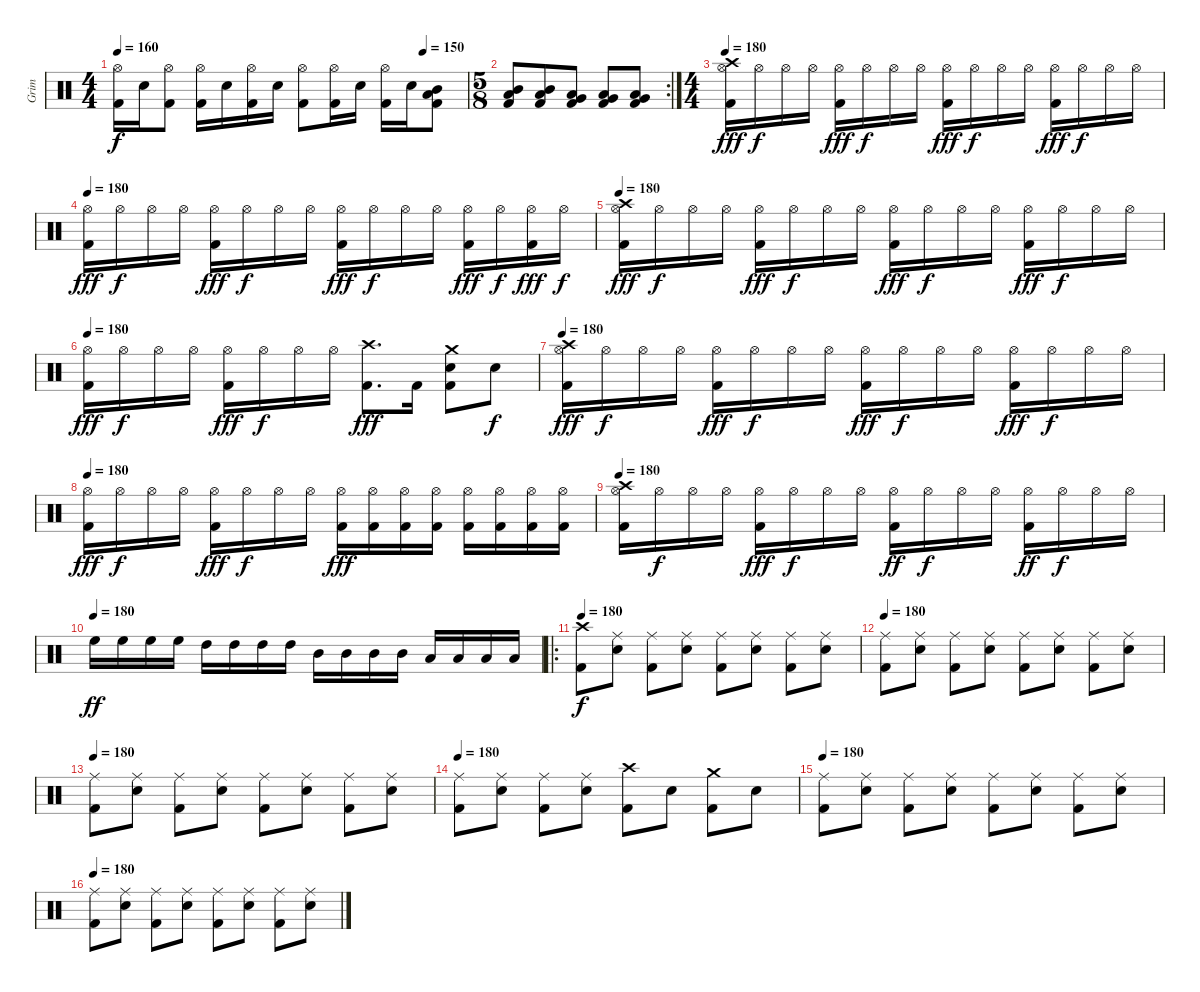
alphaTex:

\track ("Grim" "Grim") {instrument percussion}
\staff {score}
\articulation defaults
\ts (4 4)
\tempo 160
\tempo (150 0.875)
\clef neutral
\ks c
("Hi-Hat (open)" "Kick (hit) 2").16{dy f} "Electric Snare (hit)".16 ("Hi-Hat (open)" "Kick (hit) 2").8 ("Hi-Hat (open)" "Kick (hit) 2").16 "Electric Snare (hit)".16 ("Hi-Hat (open)" "Kick (hit) 2").16 "Electric Snare (hit)".16 ("Hi-Hat (open)" "Kick (hit) 2").8 ("Hi-Hat (open)" "Kick (hit) 2").16 "Electric Snare (hit)".16 ("Hi-Hat (open)" "Kick (hit) 2").16 "Electric Snare (hit)".16 ("Mid Tom (hit)" "Low Tom (hit)" "Kick (hit) 2").8 |
\rc 2
\ts (5 8)
("Mid Tom (hit)" "Low Tom (hit)" "Kick (hit) 2").8 ("Mid Tom (hit)" "Low Tom (hit)" "Kick (hit) 2").8 ("Low Tom (hit)" "Very Low Tom (hit)" "Kick (hit) 2").8 ("Low Tom (hit)" "Very Low Tom (hit)" "Kick (hit) 2").8 ("Low Tom (hit)" "Very Low Tom (hit)" "Kick (hit) 2").8 |
\ts (4 4)
\tempo 180
("Hi-Hat (open)" "Crash high (hit)" "Kick (hit) 2").16{dy fff} "Hi-Hat (open)".16{dy f} "Hi-Hat (open)".16 "Hi-Hat (open)".16 ("Hi-Hat (open)" "Kick (hit) 2").16{dy fff} "Hi-Hat (open)".16{dy f} "Hi-Hat (open)".16 "Hi-Hat (open)".16 ("Hi-Hat (open)" "Kick (hit) 2").16{dy fff} "Hi-Hat (open)".16{dy f} "Hi-Hat (open)".16 "Hi-Hat (open)".16 ("Hi-Hat (open)" "Kick (hit) 2").16{dy fff} "Hi-Hat (open)".16{dy f} "Hi-Hat (open)".16 "Hi-Hat (open)".16 |
\tempo 180
("Hi-Hat (open)" "Kick (hit) 2").16{dy fff} "Hi-Hat (open)".16{dy f} "Hi-Hat (open)".16 "Hi-Hat (open)".16 ("Hi-Hat (open)" "Kick (hit) 2").16{dy fff} "Hi-Hat (open)".16{dy f} "Hi-Hat (open)".16 "Hi-Hat (open)".16 ("Hi-Hat (open)" "Kick (hit) 2").16{dy fff} "Hi-Hat (open)".16{dy f} "Hi-Hat (open)".16 "Hi-Hat (open)".16 ("Hi-Hat (open)" "Kick (hit) 2").16{dy fff} "Hi-Hat (open)".16{dy f} ("Hi-Hat (open)" "Kick (hit) 2").16{dy fff} "Hi-Hat (open)".16{dy f} |
\tempo 180
("Hi-Hat (open)" "Crash high (hit)" "Kick (hit) 2").16{dy fff} "Hi-Hat (open)".16{dy f} "Hi-Hat (open)".16 "Hi-Hat (open)".16 ("Hi-Hat (open)" "Kick (hit) 2").16{dy fff} "Hi-Hat (open)".16{dy f} "Hi-Hat (open)".16 "Hi-Hat (open)".16 ("Hi-Hat (open)" "Kick (hit) 2").16{dy fff} "Hi-Hat (open)".16{dy f} "Hi-Hat (open)".16 "Hi-Hat (open)".16 ("Hi-Hat (open)" "Kick (hit) 2").16{dy fff} "Hi-Hat (open)".16{dy f} "Hi-Hat (open)".16 "Hi-Hat (open)".16 |
\tempo 180
("Hi-Hat (open)" "Kick (hit) 2").16{dy fff} "Hi-Hat (open)".16{dy f} "Hi-Hat (open)".16 "Hi-Hat (open)".16 ("Hi-Hat (open)" "Kick (hit) 2").16{dy fff} "Hi-Hat (open)".16{dy f} "Hi-Hat (open)".16 "Hi-Hat (open)".16 ("Crash high (hit)" "Kick (hit) 2").8{d dy fff} "Kick (hit) 2".16 ("Crash medium (hit)" "Electric Snare (hit)" "Kick (hit) 2").8 "Electric Snare (hit)".8{dy f} |
\tempo 180
("Hi-Hat (open)" "Crash high (hit)" "Kick (hit) 2").16{dy fff} "Hi-Hat (open)".16{dy f} "Hi-Hat (open)".16 "Hi-Hat (open)".16 ("Hi-Hat (open)" "Kick (hit) 2").16{dy fff} "Hi-Hat (open)".16{dy f} "Hi-Hat (open)".16 "Hi-Hat (open)".16 ("Hi-Hat (open)" "Kick (hit) 2").16{dy fff} "Hi-Hat (open)".16{dy f} "Hi-Hat (open)".16 "Hi-Hat (open)".16 ("Hi-Hat (open)" "Kick (hit) 2").16{dy fff} "Hi-Hat (open)".16{dy f} "Hi-Hat (open)".16 "Hi-Hat (open)".16 |
\tempo 180
("Hi-Hat (open)" "Kick (hit) 2").16{dy fff} "Hi-Hat (open)".16{dy f} "Hi-Hat (open)".16 "Hi-Hat (open)".16 ("Hi-Hat (open)" "Kick (hit) 2").16{dy fff} "Hi-Hat (open)".16{dy f} "Hi-Hat (open)".16 "Hi-Hat (open)".16 ("Hi-Hat (open)" "Kick (hit) 2").16{dy fff} ("Hi-Hat (open)" "Kick (hit) 2").16 ("Hi-Hat (open)" "Kick (hit) 2").16 ("Hi-Hat (open)" "Kick (hit) 2").16 ("Hi-Hat (open)" "Kick (hit) 2").16 ("Hi-Hat (open)" "Kick (hit) 2").16 ("Hi-Hat (open)" "Kick (hit) 2").16 ("Hi-Hat (open)" "Kick (hit) 2").16 |
\tempo 180
("Hi-Hat (open)" "Crash high (hit)" "Kick (hit) 2").16 "Hi-Hat (open)".16{dy f} "Hi-Hat (open)".16 "Hi-Hat (open)".16 ("Hi-Hat (open)" "Kick (hit) 2").16{dy fff} "Hi-Hat (open)".16{dy f} "Hi-Hat (open)".16 "Hi-Hat (open)".16 ("Hi-Hat (open)" "Kick (hit) 2").16{dy ff} "Hi-Hat (open)".16{dy f} "Hi-Hat (open)".16 "Hi-Hat (open)".16 ("Hi-Hat (open)" "Kick (hit) 2").16{dy ff} "Hi-Hat (open)".16{dy f} "Hi-Hat (open)".16 "Hi-Hat (open)".16 |
\tempo (180)
"High Floor Tom (hit)".16{dy ff} "High Floor Tom (hit)".16 "High Floor Tom (hit)".16 "High Floor Tom (hit)".16 "High Tom (hit)".16 "High Tom (hit)".16 "High Tom (hit)".16 "High Tom (hit)".16 "Mid Tom (hit)".16 "Mid Tom (hit)".16 "Mid Tom (hit)".16 "Mid Tom (hit)".16 "Low Tom (hit)".16 "Low Tom (hit)".16 "Low Tom (hit)".16 "Low Tom (hit)".16 |
\ro
\tempo 180
("Crash high (hit)" "Kick (hit) 2").8{dy f} ("Ride (middle)" "Electric Snare (hit)").8 ("Ride (middle)" "Kick (hit) 2").8 ("Ride (middle)" "Electric Snare (hit)").8 ("Ride (middle)" "Kick (hit) 2").8 ("Ride (middle)" "Electric Snare (hit)").8 ("Ride (middle)" "Kick (hit) 2").8 ("Ride (middle)" "Electric Snare (hit)").8 |
\tempo 180
("Ride (middle)" "Kick (hit) 2").8 ("Ride (middle)" "Electric Snare (hit)").8 ("Ride (middle)" "Kick (hit) 2").8 ("Ride (middle)" "Electric Snare (hit)").8 ("Ride (middle)" "Kick (hit) 2").8 ("Ride (middle)" "Electric Snare (hit)").8 ("Ride (middle)" "Kick (hit) 2").8 ("Ride (middle)" "Electric Snare (hit)").8 |
\tempo 180
("Ride (middle)" "Kick (hit) 2").8 ("Ride (middle)" "Electric Snare (hit)").8 ("Ride (middle)" "Kick (hit) 2").8 ("Ride (middle)" "Electric Snare (hit)").8 ("Ride (middle)" "Kick (hit) 2").8 ("Ride (middle)" "Electric Snare (hit)").8 ("Ride (middle)" "Kick (hit) 2").8 ("Ride (middle)" "Electric Snare (hit)").8 |
\tempo 180
("Ride (middle)" "Kick (hit) 2").8 ("Ride (middle)" "Electric Snare (hit)").8 ("Ride (middle)" "Kick (hit) 2").8 ("Ride (middle)" "Electric Snare (hit)").8 ("Crash high (hit)" "Kick (hit) 2").8 "Electric Snare (hit)".8 ("Crash medium (hit)" "Kick (hit) 2").8 "Electric Snare (hit)".8 |
\tempo 180
("Ride (middle)" "Kick (hit) 2").8 ("Ride (middle)" "Electric Snare (hit)").8 ("Ride (middle)" "Kick (hit) 2").8 ("Ride (middle)" "Electric Snare (hit)").8 ("Ride (middle)" "Kick (hit) 2").8 ("Ride (middle)" "Electric Snare (hit)").8 ("Ride (middle)" "Kick (hit) 2").8 ("Ride (middle)" "Electric Snare (hit)").8 |
\tempo 180
("Ride (middle)" "Kick (hit) 2").8 ("Ride (middle)" "Electric Snare (hit)").8 ("Ride (middle)" "Kick (hit) 2").8 ("Ride (middle)" "Electric Snare (hit)").8 ("Ride (middle)" "Kick (hit) 2").8 ("Ride (middle)" "Electric Snare (hit)").8 ("Ride (middle)" "Kick (hit) 2").8 ("Ride (middle)" "Electric Snare (hit)").8
